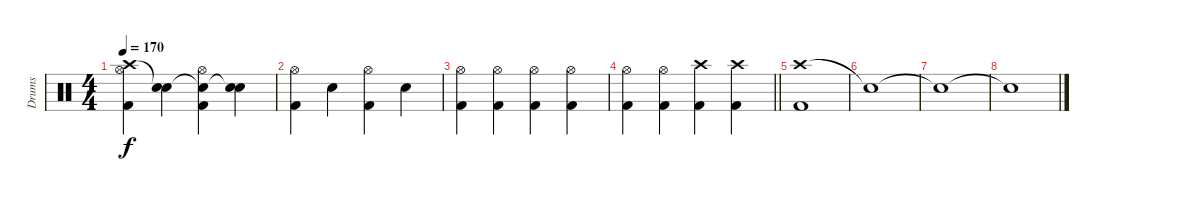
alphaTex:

\track ("Drums" "Drums") {instrument percussion}
\staff {score}
\articulation defaults
\ts (4 4)
\tempo 170
\clef neutral
\ks c
("Crash high (hit)" "Hi-Hat (open)" "Kick (hit) 2").4{dy f} ("Snare (hit)"{t} "Snare (hit) 2").4 ("Snare (hit)"{t} "Hi-Hat (open)" "Kick (hit) 2").4 ("Snare (hit)"{t} "Snare (hit) 2").4 |
("Hi-Hat (open)" "Kick (hit) 2").4 "Snare (hit) 2".4 ("Hi-Hat (open)" "Kick (hit) 2").4 "Snare (hit) 2".4 |
("Hi-Hat (open)" "Kick (hit) 2").4 ("Hi-Hat (open)" "Kick (hit) 2").4 ("Hi-Hat (open)" "Kick (hit) 2").4 ("Hi-Hat (open)" "Kick (hit) 2").4 |
\barLineRight lightlight
("Hi-Hat (open)" "Kick (hit) 2").4 ("Hi-Hat (open)" "Kick (hit) 2").4 ("Crash high (hit)" "Kick (hit) 2").4 ("Crash high (hit)" "Kick (hit) 2").4 |
("Crash high (hit)" "Kick (hit) 2").1 |
"Snare (hit)"{t}.1 |
"Snare (hit)"{t}.1 |
"Snare (hit)"{t}.1
